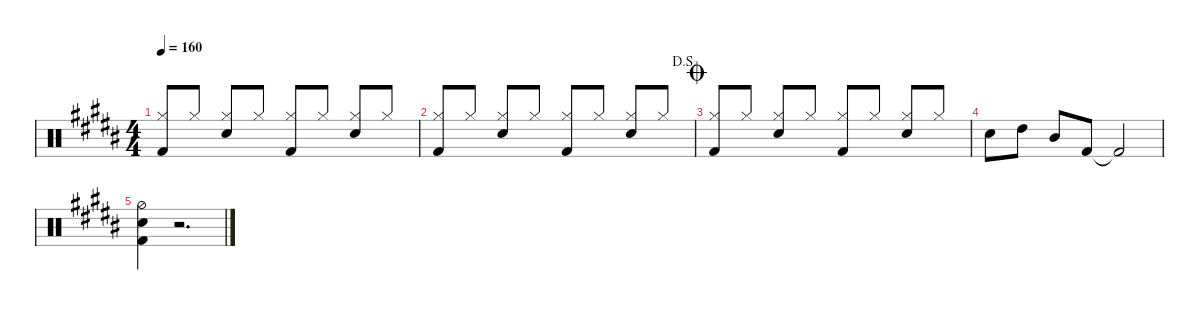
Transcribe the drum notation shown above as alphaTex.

\defaultSystemsLayout 4
\hideDynamics
\bracketExtendMode nobrackets
\singleTrackTrackNamePolicy hidden
\multiTrackTrackNamePolicy hidden
\otherSystemsTrackNameOrientation horizontal
\track ("Drumkit" "Drums") {instrument percussion}
\staff {score}
\articulation defaults
\ts (4 4)
\tempo 160
\clef neutral
\ks b
("Hi-Hat (closed)"{acc forcenatural} "Kick (hit) 2"{acc forcenatural}).8{dy ff beam invert} "Hi-Hat (closed)"{acc forcenatural}.8 ("Hi-Hat (closed)"{acc forcenatural} "Snare (hit) 2"{acc forcenatural}).8{beam invert} "Hi-Hat (closed)"{acc forcenatural}.8 ("Hi-Hat (closed)"{acc forcenatural} "Kick (hit) 2"{acc forcenatural}).8{beam invert} "Hi-Hat (closed)"{acc forcenatural}.8 ("Hi-Hat (closed)"{acc forcenatural} "Snare (hit) 2"{acc forcenatural}).8{beam invert} "Hi-Hat (closed)"{acc forcenatural}.8 |
\jump dalsegno
("Hi-Hat (closed)"{acc forcenatural} "Kick (hit) 2"{acc forcenatural}).8{beam invert} "Hi-Hat (closed)"{acc forcenatural}.8 ("Hi-Hat (closed)"{acc forcenatural} "Snare (hit) 2"{acc forcenatural}).8{beam invert} "Hi-Hat (closed)"{acc forcenatural}.8 ("Hi-Hat (closed)"{acc forcenatural} "Kick (hit) 2"{acc forcenatural}).8{beam invert} "Hi-Hat (closed)"{acc forcenatural}.8 ("Hi-Hat (closed)"{acc forcenatural} "Snare (hit) 2"{acc forcenatural}).8{beam invert} "Hi-Hat (closed)"{acc forcenatural}.8 |
\jump coda
("Hi-Hat (closed)"{acc forcenatural} "Kick (hit) 2"{acc forcenatural}).8{beam invert} "Hi-Hat (closed)"{acc forcenatural}.8 ("Hi-Hat (closed)"{acc forcenatural} "Snare (hit) 2"{acc forcenatural}).8{beam invert} "Hi-Hat (closed)"{acc forcenatural}.8 ("Hi-Hat (closed)"{acc forcenatural} "Kick (hit) 2"{acc forcenatural}).8{beam invert} "Hi-Hat (closed)"{acc forcenatural}.8 ("Hi-Hat (closed)"{acc forcenatural} "Snare (hit) 2"{acc forcenatural}).8{beam invert} "Hi-Hat (closed)"{acc forcenatural}.8 |
"Snare (hit) 2"{acc forcenatural}.8 "High Tom (hit)"{acc forcenatural}.8 "Mid Tom (hit)"{acc forcenatural}.8 "Kick (hit) 2"{acc forcenatural}.8 "Kick (hit) 2"{t acc forcenatural}.2 |
("Kick (hit) 2"{acc forcenatural} "Snare (hit) 2"{acc forcenatural} "Hi-Hat (half)"{acc forcenatural}).4 r.2{d}
